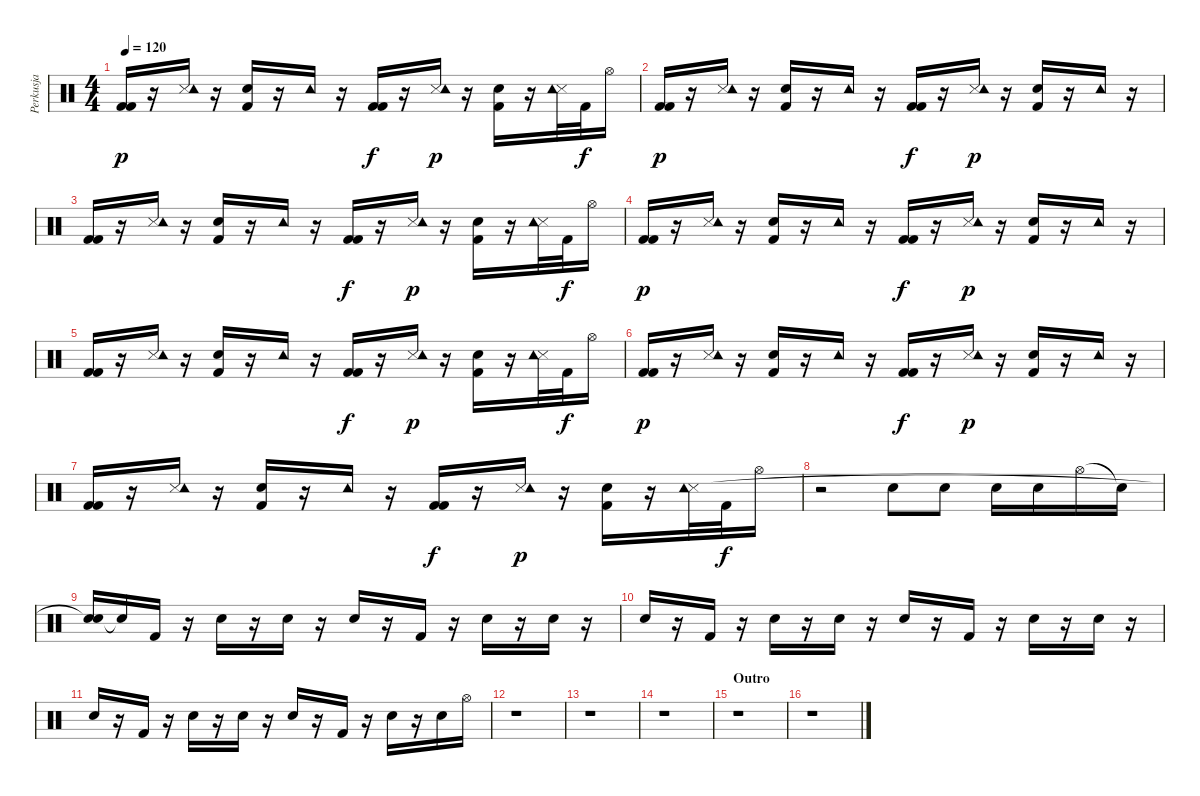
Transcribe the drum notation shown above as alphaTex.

\track ("Perkusja" "Perkusja") {instrument percussion}
\staff {score}
\articulation defaults
\ts (4 4)
\tempo 120
\clef neutral
\ks c
("Kick (hit) 2" "Kick (hit) 2").16{dy p} r.16 ("Snare (side stick) 3" "Tambourine (hit)").16 r.16 ("Electric Snare (hit)" "Kick (hit) 2").16 r.16 "Tambourine (hit)".16 r.16 ("Kick (hit) 2" "Kick (hit) 2").16{dy f} r.16 ("Snare (side stick) 3" "Tambourine (hit)").16{dy p} r.16 ("Electric Snare (hit)" "Kick (hit) 2").16 r.16 ("Snare (side stick) 3" "Tambourine (hit)").32 "Kick (hit) 2".32{dy f} "Hi-Hat (open)".16 |
("Kick (hit) 2" "Kick (hit) 2").16{dy p} r.16 ("Snare (side stick) 3" "Tambourine (hit)").16 r.16 ("Electric Snare (hit)" "Kick (hit) 2").16 r.16 "Tambourine (hit)".16 r.16 ("Kick (hit) 2" "Kick (hit) 2").16{dy f} r.16 ("Snare (side stick) 3" "Tambourine (hit)").16{dy p} r.16 ("Electric Snare (hit)" "Kick (hit) 2").16 r.16 "Tambourine (hit)".16 r.16 |
("Kick (hit) 2" "Kick (hit) 2").16 r.16 ("Snare (side stick) 3" "Tambourine (hit)").16 r.16 ("Electric Snare (hit)" "Kick (hit) 2").16 r.16 "Tambourine (hit)".16 r.16 ("Kick (hit) 2" "Kick (hit) 2").16{dy f} r.16 ("Snare (side stick) 3" "Tambourine (hit)").16{dy p} r.16 ("Electric Snare (hit)" "Kick (hit) 2").16 r.16 ("Snare (side stick) 3" "Tambourine (hit)").32 "Kick (hit) 2".32{dy f} "Hi-Hat (open)".16 |
("Kick (hit) 2" "Kick (hit) 2").16{dy p} r.16 ("Snare (side stick) 3" "Tambourine (hit)").16 r.16 ("Electric Snare (hit)" "Kick (hit) 2").16 r.16 "Tambourine (hit)".16 r.16 ("Kick (hit) 2" "Kick (hit) 2").16{dy f} r.16 ("Snare (side stick) 3" "Tambourine (hit)").16{dy p} r.16 ("Electric Snare (hit)" "Kick (hit) 2").16 r.16 "Tambourine (hit)".16 r.16 |
("Kick (hit) 2" "Kick (hit) 2").16 r.16 ("Snare (side stick) 3" "Tambourine (hit)").16 r.16 ("Electric Snare (hit)" "Kick (hit) 2").16 r.16 "Tambourine (hit)".16 r.16 ("Kick (hit) 2" "Kick (hit) 2").16{dy f} r.16 ("Snare (side stick) 3" "Tambourine (hit)").16{dy p} r.16 ("Electric Snare (hit)" "Kick (hit) 2").16 r.16 ("Snare (side stick) 3" "Tambourine (hit)").32 "Kick (hit) 2".32{dy f} "Hi-Hat (open)".16 |
("Kick (hit) 2" "Kick (hit) 2").16{dy p} r.16 ("Snare (side stick) 3" "Tambourine (hit)").16 r.16 ("Electric Snare (hit)" "Kick (hit) 2").16 r.16 "Tambourine (hit)".16 r.16 ("Kick (hit) 2" "Kick (hit) 2").16{dy f} r.16 ("Snare (side stick) 3" "Tambourine (hit)").16{dy p} r.16 ("Electric Snare (hit)" "Kick (hit) 2").16 r.16 "Tambourine (hit)".16 r.16 |
("Kick (hit) 2" "Kick (hit) 2").16 r.16 ("Snare (side stick) 3" "Tambourine (hit)").16 r.16 ("Electric Snare (hit)" "Kick (hit) 2").16 r.16 "Tambourine (hit)".16 r.16 ("Kick (hit) 2" "Kick (hit) 2").16{dy f} r.16 ("Snare (side stick) 3" "Tambourine (hit)").16{dy p} r.16 ("Electric Snare (hit)" "Kick (hit) 2").16 r.16 ("Snare (side stick) 3" "Tambourine (hit)").32 "Kick (hit) 2".32{dy f} "Hi-Hat (open)".16 |
r.2 "Electric Snare (hit)".8 "Electric Snare (hit)".8 "Electric Snare (hit)".16 "Snare (hit) 2".16 "Hi-Hat (open)".16 "Snare (hit)"{t}.16 |
("Snare (hit) 2" "Snare (hit)"{t}).16 "Snare (hit)"{t}.16 "Kick (hit) 2".16 r.16 "Electric Snare (hit)".16 r.16 "Electric Snare (hit)".16 r.16 "Snare (hit) 2".16 r.16 "Kick (hit) 2".16 r.16 "Electric Snare (hit)".16 r.16 "Electric Snare (hit)".16 r.16 |
"Snare (hit) 2".16 r.16 "Kick (hit) 2".16 r.16 "Electric Snare (hit)".16 r.16 "Electric Snare (hit)".16 r.16 "Snare (hit) 2".16 r.16 "Kick (hit) 2".16 r.16 "Electric Snare (hit)".16 r.16 "Electric Snare (hit)".16 r.16 |
"Snare (hit) 2".16 r.16 "Kick (hit) 2".16 r.16 "Electric Snare (hit)".16 r.16 "Electric Snare (hit)".16 r.16 "Snare (hit) 2".16 r.16 "Kick (hit) 2".16 r.16 "Electric Snare (hit)".16 r.16 "Electric Snare (hit)".16 "Hi-Hat (open)".16 |
r.1 |
r.1 |
r.1 |
\section ("" "Outro")
r.1 |
r.1
